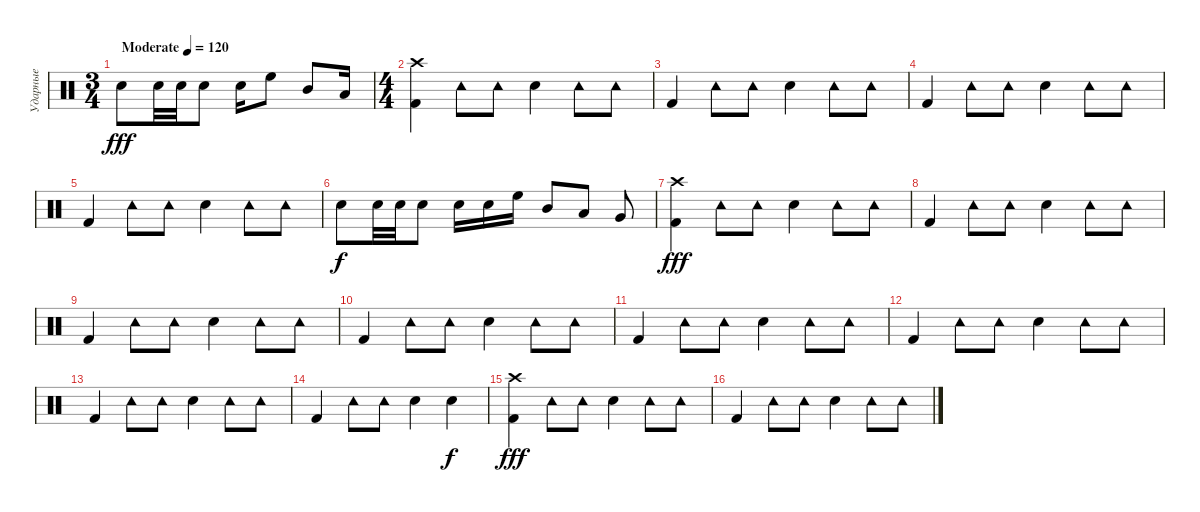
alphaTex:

\track ("Ударные" "Ударные") {instrument percussion}
\staff {score}
\articulation defaults
\ts (3 4)
\tempo (120 "Moderate")
\clef neutral
\ks c "Snare (hit) 2".8{dy fff} "Snare (hit) 2".32 "Snare (hit) 2".32 "Snare (hit) 2".8 "Snare (hit) 2".16 "High Floor Tom (hit)".8 "Mid Tom (hit)".8 "Low Tom (hit)".16
|
\ts (4 4)
("Crash high (hit)" "Kick (hit) 2").4 "Tambourine (hit)".8 "Tambourine (hit)".8 "Snare (hit) 2".4 "Tambourine (hit)".8 "Tambourine (hit)".8 |
"Kick (hit) 2".4 "Tambourine (hit)".8 "Tambourine (hit)".8 "Snare (hit) 2".4 "Tambourine (hit)".8 "Tambourine (hit)".8 |
"Kick (hit) 2".4 "Tambourine (hit)".8 "Tambourine (hit)".8 "Snare (hit) 2".4 "Tambourine (hit)".8 "Tambourine (hit)".8 |
"Kick (hit) 2".4 "Tambourine (hit)".8 "Tambourine (hit)".8 "Snare (hit) 2".4 "Tambourine (hit)".8 "Tambourine (hit)".8 |
"Snare (hit) 2".8{dy f} "Snare (hit) 2".32 "Snare (hit) 2".32 "Snare (hit) 2".8 "Snare (hit) 2".16 "Snare (hit) 2".16 "High Floor Tom (hit)".16 "Mid Tom (hit)".8 "Low Tom (hit)".8 "Very Low Tom (hit)".8 |
("Crash high (hit)" "Kick (hit) 2").4{dy fff} "Tambourine (hit)".8 "Tambourine (hit)".8 "Snare (hit) 2".4 "Tambourine (hit)".8 "Tambourine (hit)".8 |
"Kick (hit) 2".4 "Tambourine (hit)".8 "Tambourine (hit)".8 "Snare (hit) 2".4 "Tambourine (hit)".8 "Tambourine (hit)".8 |
"Kick (hit) 2".4 "Tambourine (hit)".8 "Tambourine (hit)".8 "Snare (hit) 2".4 "Tambourine (hit)".8 "Tambourine (hit)".8 |
"Kick (hit) 2".4 "Tambourine (hit)".8 "Tambourine (hit)".8 "Snare (hit) 2".4 "Tambourine (hit)".8 "Tambourine (hit)".8 |
"Kick (hit) 2".4 "Tambourine (hit)".8 "Tambourine (hit)".8 "Snare (hit) 2".4 "Tambourine (hit)".8 "Tambourine (hit)".8 |
"Kick (hit) 2".4 "Tambourine (hit)".8 "Tambourine (hit)".8 "Snare (hit) 2".4 "Tambourine (hit)".8 "Tambourine (hit)".8 |
"Kick (hit) 2".4 "Tambourine (hit)".8 "Tambourine (hit)".8 "Snare (hit) 2".4 "Tambourine (hit)".8 "Tambourine (hit)".8 |
"Kick (hit) 2".4 "Tambourine (hit)".8 "Tambourine (hit)".8 "Snare (hit) 2".4 "Snare (hit) 2".4{dy f} |
("Crash high (hit)" "Kick (hit) 2").4{dy fff} "Tambourine (hit)".8 "Tambourine (hit)".8 "Snare (hit) 2".4 "Tambourine (hit)".8 "Tambourine (hit)".8 |
"Kick (hit) 2".4 "Tambourine (hit)".8 "Tambourine (hit)".8 "Snare (hit) 2".4 "Tambourine (hit)".8 "Tambourine (hit)".8
